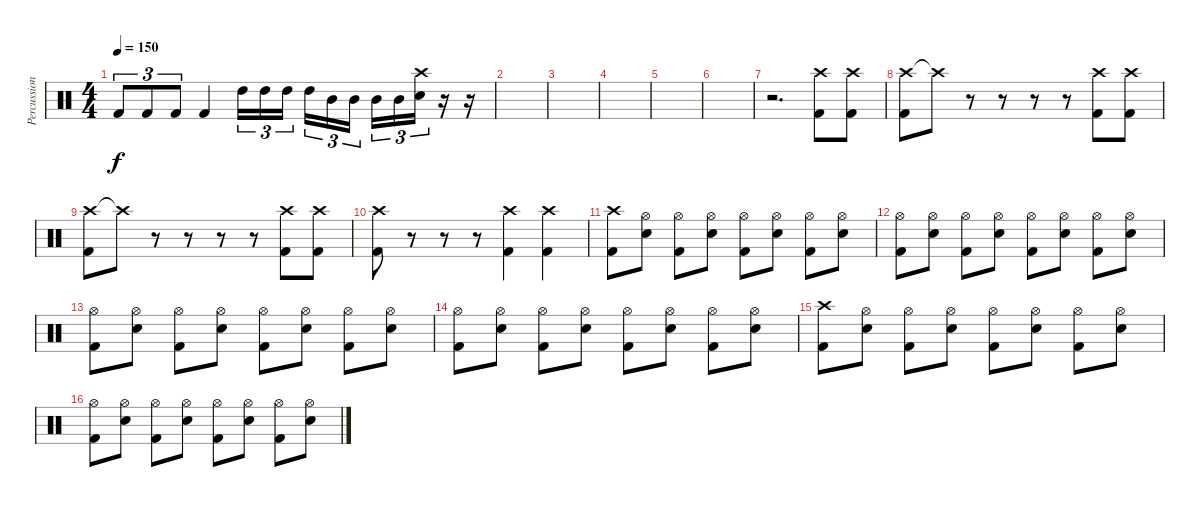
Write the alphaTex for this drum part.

\track ("Percussion" "Percussion") {instrument percussion}
\staff {score}
\articulation defaults
\ts (4 4)
\tempo 150
\clef neutral
\ks c "Kick (hit) 2".8{tu (3 2) dy f} "Kick (hit) 2".8{tu (3 2)} "Kick (hit) 2".8{tu (3 2)} "Kick (hit) 2".4 "High Tom (hit)".16{tu (3 2)} "High Tom (hit)".16{tu (3 2)} "High Tom (hit)".16{tu (3 2) beam splitsecondary} "High Tom (hit)".16{tu (3 2)} "Mid Tom (hit)".16{tu (3 2)} "Mid Tom (hit)".16{tu (3 2)} "Mid Tom (hit)".16{tu (3 2)} "Mid Tom (hit)".16{tu (3 2)}
("Crash high (hit)" "Snare (hit) 2").16{tu (3 2)} r.16 r.16 |
|
|
|
|
|
r.2{d} ("Crash high (hit)" "Kick (hit) 2").8 ("Crash high (hit)" "Kick (hit) 2").8 |
("Crash high (hit)" "Kick (hit) 2").8 "Crash high (hit)"{t}.8 r.8 r.8 r.8 r.8 ("Crash high (hit)" "Kick (hit) 2").8 ("Crash high (hit)" "Kick (hit) 2").8 |
("Crash high (hit)" "Kick (hit) 2").8 "Crash high (hit)"{t}.8 r.8 r.8 r.8 r.8 ("Crash high (hit)" "Kick (hit) 2").8 ("Crash high (hit)" "Kick (hit) 2").8 |
("Crash high (hit)" "Kick (hit) 2").8 r.8 r.8 r.8 ("Crash high (hit)" "Kick (hit) 2").4 ("Crash high (hit)" "Kick (hit) 2").4 |
("Crash high (hit)" "Kick (hit) 2").8 ("Hi-Hat (open)" "Snare (hit) 2").8 ("Hi-Hat (open)" "Kick (hit) 2").8 ("Hi-Hat (open)" "Snare (hit) 2").8 ("Hi-Hat (open)" "Kick (hit) 2").8 ("Hi-Hat (open)" "Snare (hit) 2").8 ("Hi-Hat (open)" "Kick (hit) 2").8 ("Hi-Hat (open)" "Snare (hit) 2").8 |
("Hi-Hat (open)" "Kick (hit) 2").8 ("Hi-Hat (open)" "Snare (hit) 2").8 ("Hi-Hat (open)" "Kick (hit) 2").8 ("Hi-Hat (open)" "Snare (hit) 2").8 ("Hi-Hat (open)" "Kick (hit) 2").8 ("Hi-Hat (open)" "Snare (hit) 2").8 ("Hi-Hat (open)" "Kick (hit) 2").8 ("Hi-Hat (open)" "Snare (hit) 2").8 |
("Hi-Hat (open)" "Kick (hit) 2").8 ("Hi-Hat (open)" "Snare (hit) 2").8 ("Hi-Hat (open)" "Kick (hit) 2").8 ("Hi-Hat (open)" "Snare (hit) 2").8 ("Hi-Hat (open)" "Kick (hit) 2").8 ("Hi-Hat (open)" "Snare (hit) 2").8 ("Hi-Hat (open)" "Kick (hit) 2").8 ("Hi-Hat (open)" "Snare (hit) 2").8 |
("Hi-Hat (open)" "Kick (hit) 2").8 ("Hi-Hat (open)" "Snare (hit) 2").8 ("Hi-Hat (open)" "Kick (hit) 2").8 ("Hi-Hat (open)" "Snare (hit) 2").8 ("Hi-Hat (open)" "Kick (hit) 2").8 ("Hi-Hat (open)" "Snare (hit) 2").8 ("Hi-Hat (open)" "Kick (hit) 2").8 ("Hi-Hat (open)" "Snare (hit) 2").8 |
("Crash high (hit)" "Kick (hit) 2").8 ("Hi-Hat (open)" "Snare (hit) 2").8 ("Hi-Hat (open)" "Kick (hit) 2").8 ("Hi-Hat (open)" "Snare (hit) 2").8 ("Hi-Hat (open)" "Kick (hit) 2").8 ("Hi-Hat (open)" "Snare (hit) 2").8 ("Hi-Hat (open)" "Kick (hit) 2").8 ("Hi-Hat (open)" "Snare (hit) 2").8 |
("Hi-Hat (open)" "Kick (hit) 2").8 ("Hi-Hat (open)" "Snare (hit) 2").8 ("Hi-Hat (open)" "Kick (hit) 2").8 ("Hi-Hat (open)" "Snare (hit) 2").8 ("Hi-Hat (open)" "Kick (hit) 2").8 ("Hi-Hat (open)" "Snare (hit) 2").8 ("Hi-Hat (open)" "Kick (hit) 2").8 ("Hi-Hat (open)" "Snare (hit) 2").8
